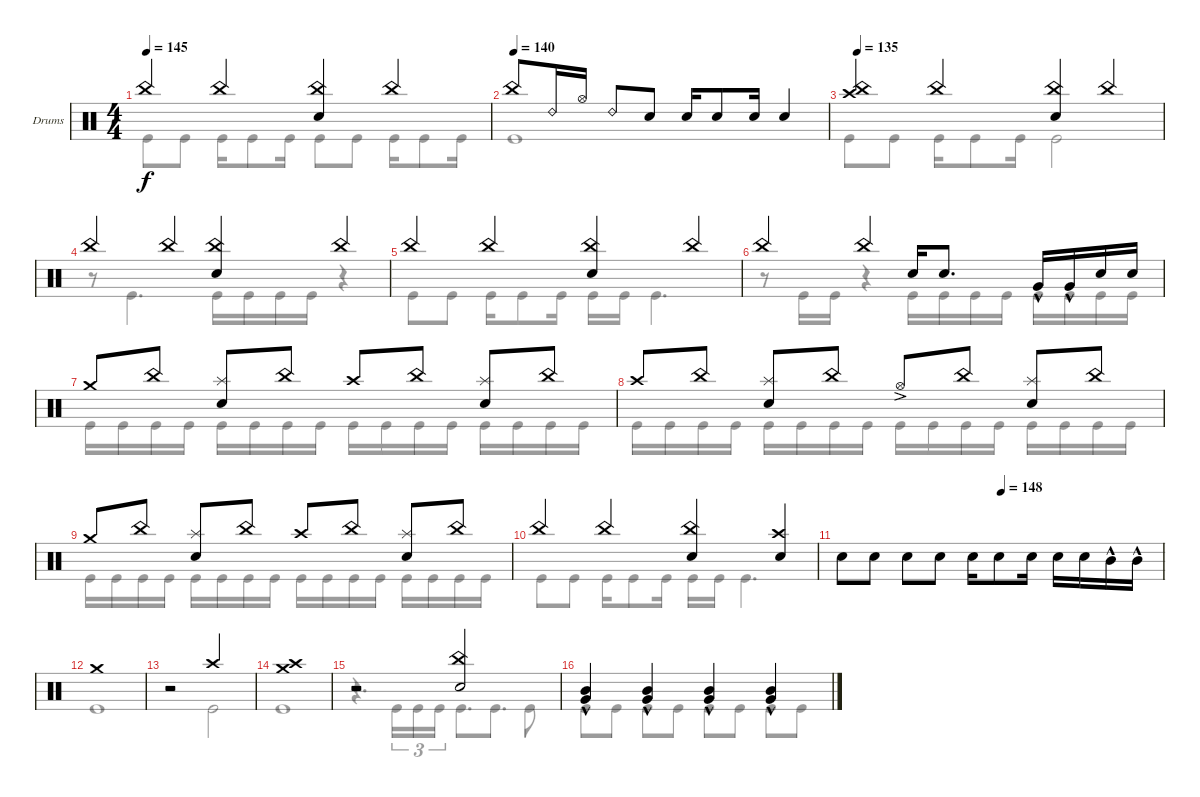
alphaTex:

\defaultSystemsLayout 4
\bracketExtendMode groupsimilarinstruments
\firstSystemTrackNameOrientation horizontal
\otherSystemsTrackNameOrientation horizontal
\track ("Drumkit" "Drums") {instrument percussion}
\staff {score}
\articulation defaults
\voice
\ts (4 4)
\tempo 145
\clef neutral
\scale
1.02648
\ks c "China (hit)".4{dy f} "China (hit)".4
("China (hit)" "Snare (hit) 2").4 "China (hit)".4 |
\tempo 140
\scale
0.973518 "China (hit)".8 "Ride (bell) 2".16 "Hi-Hat (open)".16 "Ride (bell) 2".8 "Snare (hit) 2".8 "Snare (hit) 2".16 "Snare (hit) 2".8 "Snare (hit) 2".16 "Snare (hit) 2".4 |
\tempo 135
\scale
1.02648 ("China (hit)" "Crash high (hit)").4 "China (hit)".4 ("China (hit)" "Snare (hit) 2").4 "China (hit)".4 |
\scale
0.973518 "China (hit)".4 "China (hit)".4 ("China (hit)" "Snare (hit) 2").4 "China (hit)".4 |
\scale
1.02648 "China (hit)".4 "China (hit)".4 ("China (hit)" "Snare (hit) 2").4 "China (hit)".4 |
\scale
0.973518 "China (hit)".4 "China (hit)".4 "Snare (hit) 2".16 "Snare (hit) 2".8{d} "Very Low Tom (hit)"{hac}.16 "Very Low Tom (hit)"{hac}.16 "Snare (hit) 2".16 "Snare (hit) 2".16 |
\scale
1.02648 "Crash medium (hit)".8 "China (hit)".8 ("Splash (hit)" "Snare (hit) 2").8 "China (hit)".8 "Crash high (hit)".8 "China (hit)".8 ("Splash (hit)" "Snare (hit) 2").8 "China (hit)".8 |
\scale
0.973518 "Crash high (hit)".8 "China (hit)".8 ("Splash (hit)" "Snare (hit) 2").8 "China (hit)".8 "Hi-Hat (open)"{ac}.8 "China (hit)".8 ("Splash (hit)" "Snare (hit) 2").8 "China (hit)".8 |
\scale
1.02648 "Crash medium (hit)".8 "China (hit)".8 ("Splash (hit)" "Snare (hit) 2").8 "China (hit)".8 "Crash high (hit)".8 "China (hit)".8 ("Splash (hit)" "Snare (hit) 2").8 "China (hit)".8 |
\scale
0.973518 "China (hit)".4 "China (hit)".4 ("China (hit)" "Snare (hit) 2").4 ("Crash high (hit)" "Snare (hit) 2").4 |
\tempo (148 0.5)
\scale
1.02648 "Snare (hit) 2".8 "Snare (hit) 2".8 "Snare (hit) 2".8 "Snare (hit) 2".8 "Snare (hit) 2".16 "Snare (hit) 2".8 "Snare (hit) 2".16 "Snare (hit) 2".16 "Snare (hit) 2".16 "Mid Tom (hit)"{hac}.16 "Mid Tom (hit)"{hac}.16 |
\scale
0.973518 "Crash medium (hit)".1 |
\scale
1.02648 r.2 "Crash high (hit)".2 |
\scale
0.973518 ("Crash high (hit)" "Crash medium (hit)").1 |
\scale
1.02648 r.2 ("China (hit)" "Snare (hit) 2").2 |
\scale
0.973518 ("Very Low Tom (hit)"{hac} "Mid Tom (hit)"{hac}).4 ("Mid Tom (hit)"{hac} "Very Low Tom (hit)"{hac}).4 ("Mid Tom (hit)"{hac} "Very Low Tom (hit)"{hac}).4 ("Mid Tom (hit)"{hac} "Very Low Tom (hit)"{hac}).4
\voice
\clef neutral
\ottava regular
\simile none
\scale
1.02648
\ks c "Kick (hit)".8{dy f} "Kick (hit)".8 "Kick (hit)".16 "Kick (hit)".8 "Kick (hit)".16 "Kick (hit)".8 "Kick (hit)".8 "Kick (hit)".16 "Kick (hit)".8 "Kick (hit)".16
|
\scale
0.973518 "Kick (hit)".1 |
\scale
1.02648 "Kick (hit)".8 "Kick (hit)".8 "Kick (hit)".16 "Kick (hit)".8 "Kick (hit)".16 "Kick (hit)".2 |
\scale
0.973518 r.8 "Kick (hit)".4{d} "Kick (hit)".16 "Kick (hit)".16 "Kick (hit)".16 "Kick (hit)".16 r.4 |
\scale
1.02648 "Kick (hit)".8 "Kick (hit)".8 "Kick (hit)".16 "Kick (hit)".8 "Kick (hit)".16 "Kick (hit)".16 "Kick (hit)".16 "Kick (hit)".4{d} |
\scale
0.973518 r.8 "Kick (hit)".16 "Kick (hit)".16 r.4 "Kick (hit)".16 "Kick (hit)".16 "Kick (hit)".16 "Kick (hit)".16 "Kick (hit)".16 "Kick (hit)".16 "Kick (hit)".16 "Kick (hit)".16 |
\scale
1.02648 "Kick (hit)".16 "Kick (hit)".16 "Kick (hit)".16 "Kick (hit)".16 "Kick (hit)".16 "Kick (hit)".16 "Kick (hit)".16 "Kick (hit)".16 "Kick (hit)".16 "Kick (hit)".16 "Kick (hit)".16 "Kick (hit)".16 "Kick (hit)".16 "Kick (hit)".16 "Kick (hit)".16 "Kick (hit)".16 |
\scale
0.973518 "Kick (hit)".16 "Kick (hit)".16 "Kick (hit)".16 "Kick (hit)".16 "Kick (hit)".16 "Kick (hit)".16 "Kick (hit)".16 "Kick (hit)".16 "Kick (hit)".16 "Kick (hit)".16 "Kick (hit)".16 "Kick (hit)".16 "Kick (hit)".16 "Kick (hit)".16 "Kick (hit)".16 "Kick (hit)".16 |
\scale
1.02648 "Kick (hit)".16 "Kick (hit)".16 "Kick (hit)".16 "Kick (hit)".16 "Kick (hit)".16 "Kick (hit)".16 "Kick (hit)".16 "Kick (hit)".16 "Kick (hit)".16 "Kick (hit)".16 "Kick (hit)".16 "Kick (hit)".16 "Kick (hit)".16 "Kick (hit)".16 "Kick (hit)".16 "Kick (hit)".16 |
\scale
0.973518 "Kick (hit)".8 "Kick (hit)".8 "Kick (hit)".16 "Kick (hit)".8 "Kick (hit)".16 "Kick (hit)".16 "Kick (hit)".16 "Kick (hit)".4{d} |
\scale
1.02648 |
\scale
0.973518 "Kick (hit)".1 |
\scale
1.02648 r.2 "Kick (hit)".2 |
\scale
0.973518 "Kick (hit)".1 |
\scale
1.02648 r.4{d} "Kick (hit)".16{tu (3 2)} "Kick (hit)".16{tu (3 2)} "Kick (hit)".16{tu (3 2)} "Kick (hit)".8{d} "Kick (hit)".8{d} "Kick (hit)".8 |
\scale
0.973518 "Kick (hit)".8 "Kick (hit)".8 "Kick (hit)".8 "Kick (hit)".8 "Kick (hit)".8 "Kick (hit)".8 "Kick (hit)".8 "Kick (hit)".8
